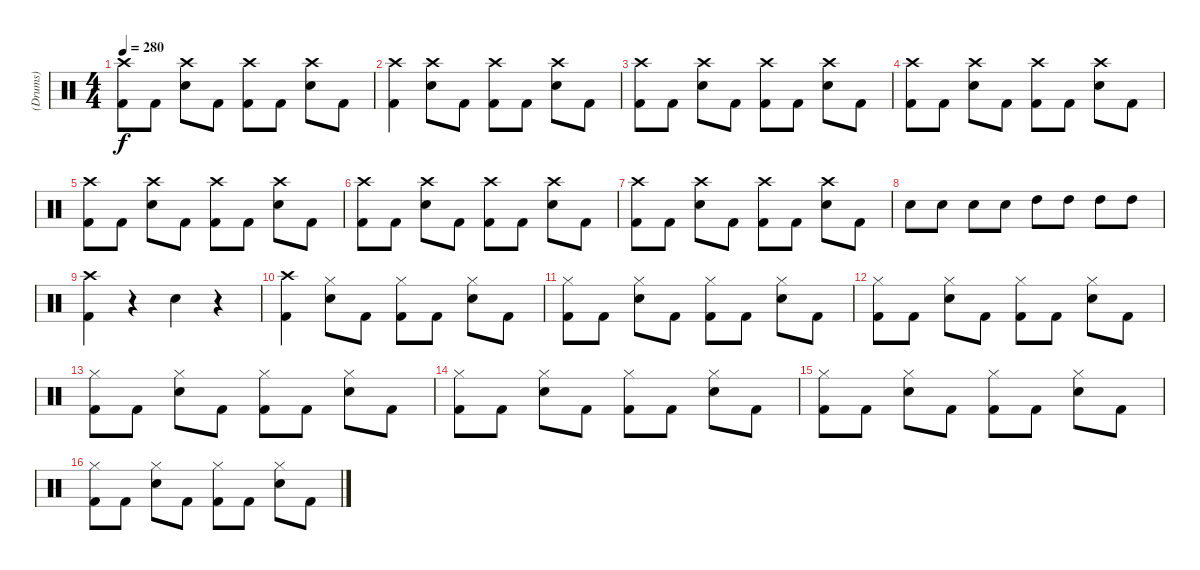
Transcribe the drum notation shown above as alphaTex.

\track ("(Drums)" "(Drums)") {instrument percussion}
\staff {score}
\articulation defaults
\ts (4 4)
\tempo 280
\clef neutral
\ks c
("Crash high (hit)" "Kick (hit) 2").8{dy f} "Kick (hit) 2".8 ("Crash high (hit)" "Snare (hit) 2").8 "Kick (hit) 2".8 ("Crash high (hit)" "Kick (hit) 2").8 "Kick (hit) 2".8 ("Crash high (hit)" "Snare (hit) 2").8 "Kick (hit) 2".8 |
("Crash high (hit)" "Kick (hit) 2").4 ("Crash high (hit)" "Snare (hit) 2").8 "Kick (hit) 2".8 ("Crash high (hit)" "Kick (hit) 2").8 "Kick (hit) 2".8 ("Crash high (hit)" "Snare (hit) 2").8 "Kick (hit) 2".8 |
("Crash high (hit)" "Kick (hit) 2").8 "Kick (hit) 2".8 ("Crash high (hit)" "Snare (hit) 2").8 "Kick (hit) 2".8 ("Crash high (hit)" "Kick (hit) 2").8 "Kick (hit) 2".8 ("Crash high (hit)" "Snare (hit) 2").8 "Kick (hit) 2".8 |
("Crash high (hit)" "Kick (hit) 2").8 "Kick (hit) 2".8 ("Crash high (hit)" "Snare (hit) 2").8 "Kick (hit) 2".8 ("Crash high (hit)" "Kick (hit) 2").8 "Kick (hit) 2".8 ("Crash high (hit)" "Snare (hit) 2").8 "Kick (hit) 2".8 |
("Crash high (hit)" "Kick (hit) 2").8 "Kick (hit) 2".8 ("Crash high (hit)" "Snare (hit) 2").8 "Kick (hit) 2".8 ("Crash high (hit)" "Kick (hit) 2").8 "Kick (hit) 2".8 ("Crash high (hit)" "Snare (hit) 2").8 "Kick (hit) 2".8 |
("Crash high (hit)" "Kick (hit) 2").8 "Kick (hit) 2".8 ("Crash high (hit)" "Snare (hit) 2").8 "Kick (hit) 2".8 ("Crash high (hit)" "Kick (hit) 2").8 "Kick (hit) 2".8 ("Crash high (hit)" "Snare (hit) 2").8 "Kick (hit) 2".8 |
("Crash high (hit)" "Kick (hit) 2").8 "Kick (hit) 2".8 ("Crash high (hit)" "Snare (hit) 2").8 "Kick (hit) 2".8 ("Crash high (hit)" "Kick (hit) 2").8 "Kick (hit) 2".8 ("Crash high (hit)" "Snare (hit) 2").8 "Kick (hit) 2".8 |
"Snare (hit) 2".8 "Snare (hit) 2".8 "Snare (hit) 2".8 "Snare (hit) 2".8 "High Tom (hit)".8 "High Tom (hit)".8 "High Tom (hit)".8 "High Tom (hit)".8 |
("Kick (hit) 2" "Crash high (hit)").4 r.4 "Snare (hit) 2".4 r.4 |
("Kick (hit) 2" "Crash high (hit)").4 ("Hi-Hat (closed)" "Snare (hit) 2").8 "Kick (hit) 2".8 ("Hi-Hat (closed)" "Kick (hit) 2").8 "Kick (hit) 2".8 ("Hi-Hat (closed)" "Snare (hit) 2").8 "Kick (hit) 2".8 |
("Hi-Hat (closed)" "Kick (hit) 2").8 "Kick (hit) 2".8 ("Hi-Hat (closed)" "Snare (hit) 2").8 "Kick (hit) 2".8 ("Hi-Hat (closed)" "Kick (hit) 2").8 "Kick (hit) 2".8 ("Hi-Hat (closed)" "Snare (hit) 2").8 "Kick (hit) 2".8 |
("Hi-Hat (closed)" "Kick (hit) 2").8 "Kick (hit) 2".8 ("Hi-Hat (closed)" "Snare (hit) 2").8 "Kick (hit) 2".8 ("Hi-Hat (closed)" "Kick (hit) 2").8 "Kick (hit) 2".8 ("Hi-Hat (closed)" "Snare (hit) 2").8 "Kick (hit) 2".8 |
("Hi-Hat (closed)" "Kick (hit) 2").8 "Kick (hit) 2".8 ("Hi-Hat (closed)" "Snare (hit) 2").8 "Kick (hit) 2".8 ("Hi-Hat (closed)" "Kick (hit) 2").8 "Kick (hit) 2".8 ("Hi-Hat (closed)" "Snare (hit) 2").8 "Kick (hit) 2".8 |
("Hi-Hat (closed)" "Kick (hit) 2").8 "Kick (hit) 2".8 ("Hi-Hat (closed)" "Snare (hit) 2").8 "Kick (hit) 2".8 ("Hi-Hat (closed)" "Kick (hit) 2").8 "Kick (hit) 2".8 ("Hi-Hat (closed)" "Snare (hit) 2").8 "Kick (hit) 2".8 |
("Hi-Hat (closed)" "Kick (hit) 2").8 "Kick (hit) 2".8 ("Hi-Hat (closed)" "Snare (hit) 2").8 "Kick (hit) 2".8 ("Hi-Hat (closed)" "Kick (hit) 2").8 "Kick (hit) 2".8 ("Hi-Hat (closed)" "Snare (hit) 2").8 "Kick (hit) 2".8 |
("Hi-Hat (closed)" "Kick (hit) 2").8 "Kick (hit) 2".8 ("Hi-Hat (closed)" "Snare (hit) 2").8 "Kick (hit) 2".8 ("Hi-Hat (closed)" "Kick (hit) 2").8 "Kick (hit) 2".8 ("Hi-Hat (closed)" "Snare (hit) 2").8 "Kick (hit) 2".8
